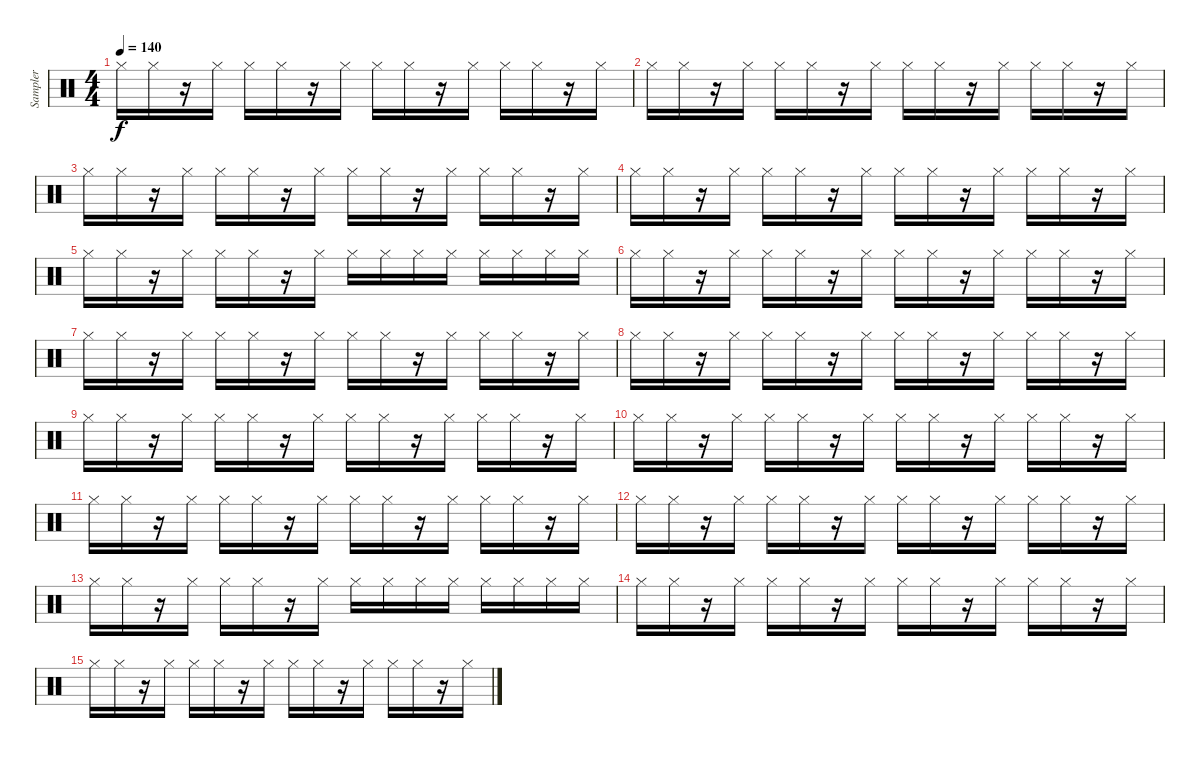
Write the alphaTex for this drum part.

\track ("Sampler" "Sampler") {instrument percussion}
\staff {score}
\articulation defaults
\ts (4 4)
\tempo 140
\clef neutral
\ks c "Hi-Hat (closed)".16{dy f} "Hi-Hat (closed)".16
r.16 "Hi-Hat (closed)".16 "Hi-Hat (closed)".16 "Hi-Hat (closed)".16 r.16 "Hi-Hat (closed)".16 "Hi-Hat (closed)".16 "Hi-Hat (closed)".16 r.16 "Hi-Hat (closed)".16 "Hi-Hat (closed)".16 "Hi-Hat (closed)".16 r.16 "Hi-Hat (closed)".16 |
"Hi-Hat (closed)".16 "Hi-Hat (closed)".16 r.16 "Hi-Hat (closed)".16 "Hi-Hat (closed)".16 "Hi-Hat (closed)".16 r.16 "Hi-Hat (closed)".16 "Hi-Hat (closed)".16 "Hi-Hat (closed)".16 r.16 "Hi-Hat (closed)".16 "Hi-Hat (closed)".16 "Hi-Hat (closed)".16 r.16 "Hi-Hat (closed)".16 |
"Hi-Hat (closed)".16 "Hi-Hat (closed)".16 r.16 "Hi-Hat (closed)".16 "Hi-Hat (closed)".16 "Hi-Hat (closed)".16 r.16 "Hi-Hat (closed)".16 "Hi-Hat (closed)".16 "Hi-Hat (closed)".16 r.16 "Hi-Hat (closed)".16 "Hi-Hat (closed)".16 "Hi-Hat (closed)".16 r.16 "Hi-Hat (closed)".16 |
"Hi-Hat (closed)".16 "Hi-Hat (closed)".16 r.16 "Hi-Hat (closed)".16 "Hi-Hat (closed)".16 "Hi-Hat (closed)".16 r.16 "Hi-Hat (closed)".16 "Hi-Hat (closed)".16 "Hi-Hat (closed)".16 r.16 "Hi-Hat (closed)".16 "Hi-Hat (closed)".16 "Hi-Hat (closed)".16 r.16 "Hi-Hat (closed)".16 |
"Hi-Hat (closed)".16 "Hi-Hat (closed)".16 r.16 "Hi-Hat (closed)".16 "Hi-Hat (closed)".16 "Hi-Hat (closed)".16 r.16 "Hi-Hat (closed)".16 "Hi-Hat (closed)".16 "Hi-Hat (closed)".16 "Hi-Hat (closed)".16 "Hi-Hat (closed)".16 "Hi-Hat (closed)".16 "Hi-Hat (closed)".16 "Hi-Hat (closed)".16 "Hi-Hat (closed)".16 |
"Hi-Hat (closed)".16 "Hi-Hat (closed)".16 r.16 "Hi-Hat (closed)".16 "Hi-Hat (closed)".16 "Hi-Hat (closed)".16 r.16 "Hi-Hat (closed)".16 "Hi-Hat (closed)".16 "Hi-Hat (closed)".16 r.16 "Hi-Hat (closed)".16 "Hi-Hat (closed)".16 "Hi-Hat (closed)".16 r.16 "Hi-Hat (closed)".16 |
"Hi-Hat (closed)".16 "Hi-Hat (closed)".16 r.16 "Hi-Hat (closed)".16 "Hi-Hat (closed)".16 "Hi-Hat (closed)".16 r.16 "Hi-Hat (closed)".16 "Hi-Hat (closed)".16 "Hi-Hat (closed)".16 r.16 "Hi-Hat (closed)".16 "Hi-Hat (closed)".16 "Hi-Hat (closed)".16 r.16 "Hi-Hat (closed)".16 |
"Hi-Hat (closed)".16 "Hi-Hat (closed)".16 r.16 "Hi-Hat (closed)".16 "Hi-Hat (closed)".16 "Hi-Hat (closed)".16 r.16 "Hi-Hat (closed)".16 "Hi-Hat (closed)".16 "Hi-Hat (closed)".16 r.16 "Hi-Hat (closed)".16 "Hi-Hat (closed)".16 "Hi-Hat (closed)".16 r.16 "Hi-Hat (closed)".16 |
"Hi-Hat (closed)".16 "Hi-Hat (closed)".16 r.16 "Hi-Hat (closed)".16 "Hi-Hat (closed)".16 "Hi-Hat (closed)".16 r.16 "Hi-Hat (closed)".16 "Hi-Hat (closed)".16 "Hi-Hat (closed)".16 r.16 "Hi-Hat (closed)".16 "Hi-Hat (closed)".16 "Hi-Hat (closed)".16 r.16 "Hi-Hat (closed)".16 |
"Hi-Hat (closed)".16 "Hi-Hat (closed)".16 r.16 "Hi-Hat (closed)".16 "Hi-Hat (closed)".16 "Hi-Hat (closed)".16 r.16 "Hi-Hat (closed)".16 "Hi-Hat (closed)".16 "Hi-Hat (closed)".16 r.16 "Hi-Hat (closed)".16 "Hi-Hat (closed)".16 "Hi-Hat (closed)".16 r.16 "Hi-Hat (closed)".16 |
"Hi-Hat (closed)".16 "Hi-Hat (closed)".16 r.16 "Hi-Hat (closed)".16 "Hi-Hat (closed)".16 "Hi-Hat (closed)".16 r.16 "Hi-Hat (closed)".16 "Hi-Hat (closed)".16 "Hi-Hat (closed)".16 r.16 "Hi-Hat (closed)".16 "Hi-Hat (closed)".16 "Hi-Hat (closed)".16 r.16 "Hi-Hat (closed)".16 |
"Hi-Hat (closed)".16 "Hi-Hat (closed)".16 r.16 "Hi-Hat (closed)".16 "Hi-Hat (closed)".16 "Hi-Hat (closed)".16 r.16 "Hi-Hat (closed)".16 "Hi-Hat (closed)".16 "Hi-Hat (closed)".16 r.16 "Hi-Hat (closed)".16 "Hi-Hat (closed)".16 "Hi-Hat (closed)".16 r.16 "Hi-Hat (closed)".16 |
"Hi-Hat (closed)".16 "Hi-Hat (closed)".16 r.16 "Hi-Hat (closed)".16 "Hi-Hat (closed)".16 "Hi-Hat (closed)".16 r.16 "Hi-Hat (closed)".16 "Hi-Hat (closed)".16 "Hi-Hat (closed)".16 "Hi-Hat (closed)".16 "Hi-Hat (closed)".16 "Hi-Hat (closed)".16 "Hi-Hat (closed)".16 "Hi-Hat (closed)".16 "Hi-Hat (closed)".16 |
"Hi-Hat (closed)".16 "Hi-Hat (closed)".16 r.16 "Hi-Hat (closed)".16 "Hi-Hat (closed)".16 "Hi-Hat (closed)".16 r.16 "Hi-Hat (closed)".16 "Hi-Hat (closed)".16 "Hi-Hat (closed)".16 r.16 "Hi-Hat (closed)".16 "Hi-Hat (closed)".16 "Hi-Hat (closed)".16 r.16 "Hi-Hat (closed)".16 |
"Hi-Hat (closed)".16 "Hi-Hat (closed)".16 r.16 "Hi-Hat (closed)".16 "Hi-Hat (closed)".16 "Hi-Hat (closed)".16 r.16 "Hi-Hat (closed)".16 "Hi-Hat (closed)".16 "Hi-Hat (closed)".16 r.16 "Hi-Hat (closed)".16 "Hi-Hat (closed)".16 "Hi-Hat (closed)".16 r.16 "Hi-Hat (closed)".16
